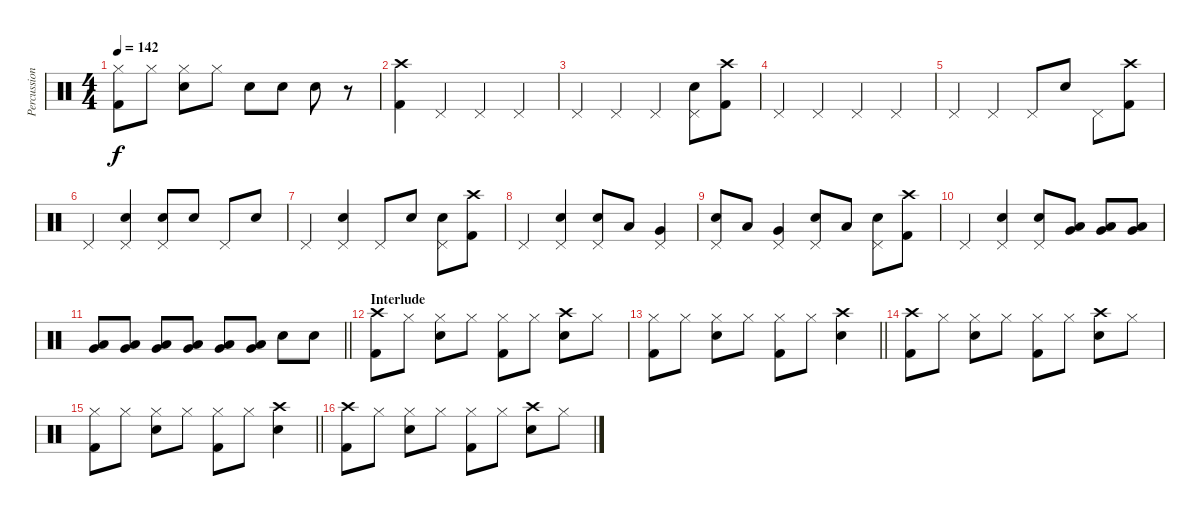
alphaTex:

\track ("Percussion" "Percussion") {instrument percussion}
\staff {score}
\articulation defaults
\ts (4 4)
\tempo 142
\clef neutral
\ks c
("Hi-Hat (closed)" "Kick (hit) 2").8{dy f} "Hi-Hat (closed)".8 ("Hi-Hat (closed)" "Electric Snare (hit)").8 "Hi-Hat (closed)".8 "Electric Snare (hit)".8 "Electric Snare (hit)".8 "Electric Snare (hit)".8 r.8 |
("Crash high (hit)" "Kick (hit) 2").4 "Pedal Hi-Hat (hit)".4 "Pedal Hi-Hat (hit)".4 "Pedal Hi-Hat (hit)".4 |
"Pedal Hi-Hat (hit)".4 "Pedal Hi-Hat (hit)".4 "Pedal Hi-Hat (hit)".4 ("Pedal Hi-Hat (hit)" "Electric Snare (hit)").8 ("Crash high (hit)" "Kick (hit) 2").8 |
"Pedal Hi-Hat (hit)".4 "Pedal Hi-Hat (hit)".4 "Pedal Hi-Hat (hit)".4 "Pedal Hi-Hat (hit)".4 |
"Pedal Hi-Hat (hit)".4 "Pedal Hi-Hat (hit)".4 "Pedal Hi-Hat (hit)".8 "Electric Snare (hit)".8 "Pedal Hi-Hat (hit)".8 ("Crash high (hit)" "Kick (hit) 2").8 |
"Pedal Hi-Hat (hit)".4 ("Pedal Hi-Hat (hit)" "Electric Snare (hit)").4 ("Pedal Hi-Hat (hit)" "Electric Snare (hit)").8 "Electric Snare (hit)".8 "Pedal Hi-Hat (hit)".8 "Electric Snare (hit)".8 |
"Pedal Hi-Hat (hit)".4 ("Pedal Hi-Hat (hit)" "Electric Snare (hit)").4 "Pedal Hi-Hat (hit)".8 "Electric Snare (hit)".8 ("Pedal Hi-Hat (hit)" "Electric Snare (hit)").8 ("Crash high (hit)" "Kick (hit) 2").8 |
"Pedal Hi-Hat (hit)".4 ("Pedal Hi-Hat (hit)" "Electric Snare (hit)").4 ("Pedal Hi-Hat (hit)" "Electric Snare (hit)").8 "Low Tom (hit)".8 ("Very Low Tom (hit)" "Pedal Hi-Hat (hit)").4 |
("Pedal Hi-Hat (hit)" "Electric Snare (hit)").8 "Low Tom (hit)".8 ("Very Low Tom (hit)" "Pedal Hi-Hat (hit)").4 ("Pedal Hi-Hat (hit)" "Electric Snare (hit)").8 "Low Tom (hit)".8 ("Pedal Hi-Hat (hit)" "Electric Snare (hit)").8 ("Crash high (hit)" "Kick (hit) 2").8 |
"Pedal Hi-Hat (hit)".4 ("Pedal Hi-Hat (hit)" "Electric Snare (hit)").4 ("Pedal Hi-Hat (hit)" "Electric Snare (hit)").8 ("Very Low Tom (hit)" "Low Tom (hit)").8 ("Very Low Tom (hit)" "Low Tom (hit)").8 ("Very Low Tom (hit)" "Low Tom (hit)").8 |
\barLineRight lightlight
("Very Low Tom (hit)" "Low Tom (hit)").8 ("Very Low Tom (hit)" "Low Tom (hit)").8 ("Very Low Tom (hit)" "Low Tom (hit)").8 ("Very Low Tom (hit)" "Low Tom (hit)").8 ("Very Low Tom (hit)" "Low Tom (hit)").8 ("Very Low Tom (hit)" "Low Tom (hit)").8 "Electric Snare (hit)".8 "Electric Snare (hit)".8 |
\section ("" "Interlude")
("Crash high (hit)" "Kick (hit) 2").8 "Hi-Hat (closed)".8 ("Hi-Hat (closed)" "Electric Snare (hit)").8 "Hi-Hat (closed)".8 ("Hi-Hat (closed)" "Kick (hit) 2").8 "Hi-Hat (closed)".8 ("Crash high (hit)" "Electric Snare (hit)").8 "Hi-Hat (closed)".8 |
\barLineRight lightlight
("Hi-Hat (closed)" "Kick (hit) 2").8 "Hi-Hat (closed)".8 ("Hi-Hat (closed)" "Electric Snare (hit)").8 "Hi-Hat (closed)".8 ("Hi-Hat (closed)" "Kick (hit) 2").8 "Hi-Hat (closed)".8 ("Crash high (hit)" "Electric Snare (hit)").4 |
("Crash high (hit)" "Kick (hit) 2").8 "Hi-Hat (closed)".8 ("Hi-Hat (closed)" "Electric Snare (hit)").8 "Hi-Hat (closed)".8 ("Hi-Hat (closed)" "Kick (hit) 2").8 "Hi-Hat (closed)".8 ("Crash high (hit)" "Electric Snare (hit)").8 "Hi-Hat (closed)".8 |
\barLineRight lightlight
("Hi-Hat (closed)" "Kick (hit) 2").8 "Hi-Hat (closed)".8 ("Hi-Hat (closed)" "Electric Snare (hit)").8 "Hi-Hat (closed)".8 ("Hi-Hat (closed)" "Kick (hit) 2").8 "Hi-Hat (closed)".8 ("Crash high (hit)" "Electric Snare (hit)").4 |
("Crash high (hit)" "Kick (hit) 2").8 "Hi-Hat (closed)".8 ("Hi-Hat (closed)" "Electric Snare (hit)").8 "Hi-Hat (closed)".8 ("Hi-Hat (closed)" "Kick (hit) 2").8 "Hi-Hat (closed)".8 ("Crash high (hit)" "Electric Snare (hit)").8 "Hi-Hat (closed)".8
